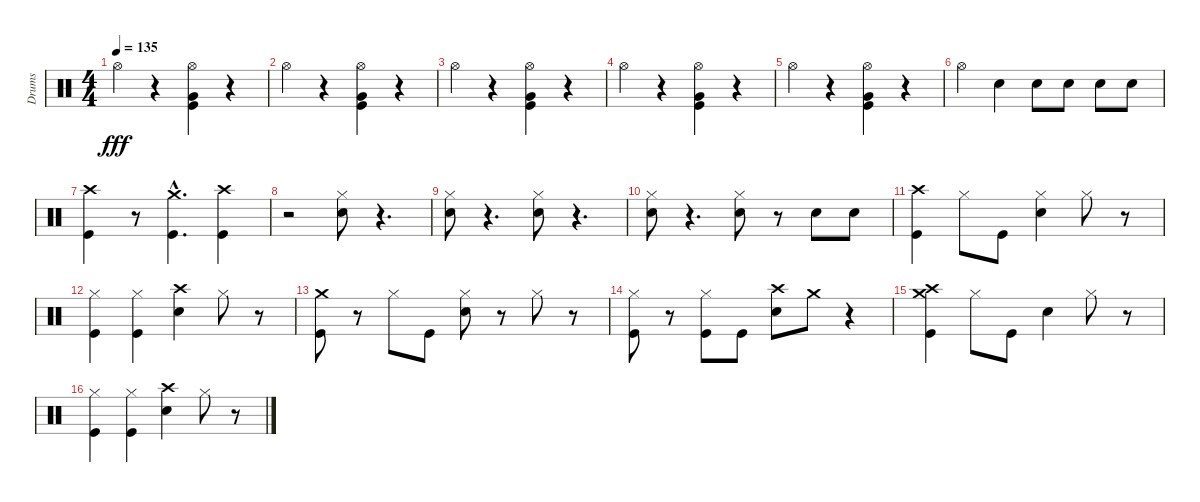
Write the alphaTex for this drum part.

\track ("Drums" "Drums") {instrument percussion}
\staff {score}
\articulation defaults
\ts (4 4)
\tempo 135
\clef neutral
\ks c "Hi-Hat (open)".4{dy fff}
r.4 ("Hi-Hat (open)" "Very Low Tom (hit)" "Kick (hit)").4 r.4 |
"Hi-Hat (open)".4 r.4 ("Hi-Hat (open)" "Very Low Tom (hit)" "Kick (hit)").4 r.4 |
"Hi-Hat (open)".4 r.4 ("Hi-Hat (open)" "Very Low Tom (hit)" "Kick (hit)").4 r.4 |
"Hi-Hat (open)".4 r.4 ("Hi-Hat (open)" "Very Low Tom (hit)" "Kick (hit)").4 r.4 |
"Hi-Hat (open)".4 r.4 ("Hi-Hat (open)" "Very Low Tom (hit)" "Kick (hit)").4 r.4 |
"Hi-Hat (open)".4 "Snare (hit) 2".4 "Snare (hit) 2".8 "Snare (hit) 2".8 "Snare (hit) 2".8 "Snare (hit) 2".8 |
("Crash high (hit)" "Kick (hit)").4 r.8 ("Crash medium (hit)"{hac} "Kick (hit)"{hac}).4{d} ("Crash high (hit)" "Kick (hit)").4 |
r.2 ("Snare (hit) 2" "Hi-Hat (closed)").8 r.4{d} |
("Snare (hit) 2" "Hi-Hat (closed)").8 r.4{d} ("Snare (hit) 2" "Hi-Hat (closed)").8 r.4{d} |
("Snare (hit) 2" "Hi-Hat (closed)").8 r.4{d} ("Snare (hit) 2" "Hi-Hat (closed)").8 r.8 "Snare (hit) 2".8 "Snare (hit) 2".8 |
("Kick (hit)" "Crash high (hit)").4 "Hi-Hat (closed)".8 "Kick (hit)".8 ("Hi-Hat (closed)" "Snare (hit) 2").4 "Hi-Hat (closed)".8 r.8 |
("Hi-Hat (closed)" "Kick (hit)").4 ("Hi-Hat (closed)" "Kick (hit)").4 ("Crash high (hit)" "Snare (hit) 2").4 "Hi-Hat (closed)".8 r.8 |
("Crash medium (hit)" "Kick (hit)").8 r.8 "Hi-Hat (closed)".8 "Kick (hit)".8 ("Hi-Hat (closed)" "Snare (hit) 2").8 r.8 "Hi-Hat (closed)".8 r.8 |
("Hi-Hat (closed)" "Kick (hit)").8 r.8 ("Hi-Hat (closed)" "Kick (hit)").8 "Kick (hit)".8 ("Crash high (hit)" "Snare (hit) 2").8 "Crash medium (hit)".8 r.4 |
("Crash medium (hit)" "Kick (hit)" "Crash high (hit)").4 "Hi-Hat (closed)".8 "Kick (hit)".8 "Snare (hit) 2".4 "Hi-Hat (closed)".8 r.8 |
("Hi-Hat (closed)" "Kick (hit)").4 ("Hi-Hat (closed)" "Kick (hit)").4 ("Crash high (hit)" "Snare (hit) 2").4 "Hi-Hat (closed)".8 r.8
